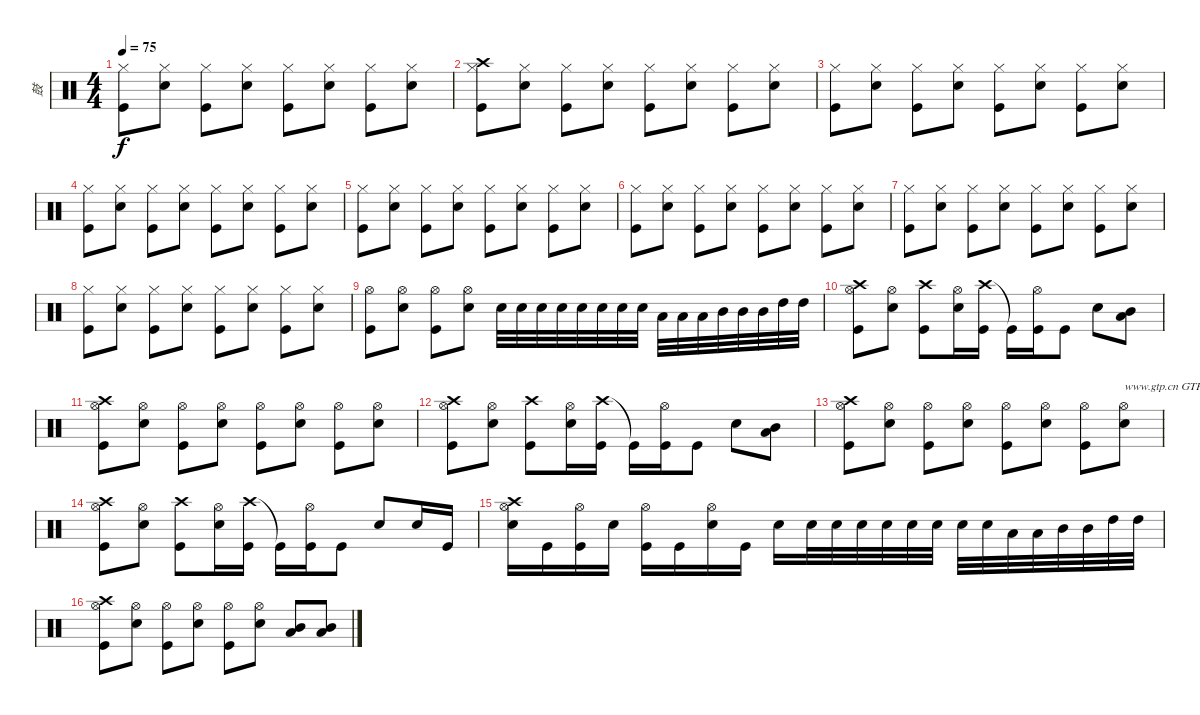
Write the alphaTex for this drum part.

\track ("鼓" "鼓") {instrument percussion}
\staff {score}
\articulation defaults
\ts (4 4)
\tempo 75
\clef neutral
\ks c
("Hi-Hat (closed)" "Kick (hit)").8{dy f} ("Hi-Hat (closed)" "Electric Snare (hit)").8 ("Hi-Hat (closed)" "Kick (hit)").8 ("Hi-Hat (closed)" "Electric Snare (hit)").8 ("Hi-Hat (closed)" "Kick (hit)").8 ("Hi-Hat (closed)" "Electric Snare (hit)").8 ("Hi-Hat (closed)" "Kick (hit)").8 ("Hi-Hat (closed)" "Electric Snare (hit)").8 |
("Crash high (hit)" "Hi-Hat (closed)" "Kick (hit)").8 ("Hi-Hat (closed)" "Electric Snare (hit)").8 ("Hi-Hat (closed)" "Kick (hit)").8 ("Hi-Hat (closed)" "Electric Snare (hit)").8 ("Hi-Hat (closed)" "Kick (hit)").8 ("Hi-Hat (closed)" "Electric Snare (hit)").8 ("Hi-Hat (closed)" "Kick (hit)").8 ("Hi-Hat (closed)" "Electric Snare (hit)").8 |
("Hi-Hat (closed)" "Kick (hit)").8 ("Hi-Hat (closed)" "Electric Snare (hit)").8 ("Hi-Hat (closed)" "Kick (hit)").8 ("Hi-Hat (closed)" "Electric Snare (hit)").8 ("Hi-Hat (closed)" "Kick (hit)").8 ("Hi-Hat (closed)" "Electric Snare (hit)").8 ("Hi-Hat (closed)" "Kick (hit)").8 ("Hi-Hat (closed)" "Electric Snare (hit)").8 |
("Hi-Hat (closed)" "Kick (hit)").8 ("Hi-Hat (closed)" "Electric Snare (hit)").8 ("Hi-Hat (closed)" "Kick (hit)").8 ("Hi-Hat (closed)" "Electric Snare (hit)").8 ("Hi-Hat (closed)" "Kick (hit)").8 ("Hi-Hat (closed)" "Electric Snare (hit)").8 ("Hi-Hat (closed)" "Kick (hit)").8 ("Hi-Hat (closed)" "Electric Snare (hit)").8 |
("Hi-Hat (closed)" "Kick (hit)").8 ("Hi-Hat (closed)" "Electric Snare (hit)").8 ("Hi-Hat (closed)" "Kick (hit)").8 ("Hi-Hat (closed)" "Electric Snare (hit)").8 ("Hi-Hat (closed)" "Kick (hit)").8 ("Hi-Hat (closed)" "Electric Snare (hit)").8 ("Hi-Hat (closed)" "Kick (hit)").8 ("Hi-Hat (closed)" "Electric Snare (hit)").8 |
("Hi-Hat (closed)" "Kick (hit)").8 ("Hi-Hat (closed)" "Electric Snare (hit)").8 ("Hi-Hat (closed)" "Kick (hit)").8 ("Hi-Hat (closed)" "Electric Snare (hit)").8 ("Hi-Hat (closed)" "Kick (hit)").8 ("Hi-Hat (closed)" "Electric Snare (hit)").8 ("Hi-Hat (closed)" "Kick (hit)").8 ("Hi-Hat (closed)" "Electric Snare (hit)").8 |
("Hi-Hat (closed)" "Kick (hit)").8 ("Hi-Hat (closed)" "Electric Snare (hit)").8 ("Hi-Hat (closed)" "Kick (hit)").8 ("Hi-Hat (closed)" "Electric Snare (hit)").8 ("Hi-Hat (closed)" "Kick (hit)").8 ("Hi-Hat (closed)" "Electric Snare (hit)").8 ("Hi-Hat (closed)" "Kick (hit)").8 ("Hi-Hat (closed)" "Electric Snare (hit)").8 |
("Hi-Hat (closed)" "Kick (hit)").8 ("Hi-Hat (closed)" "Electric Snare (hit)").8 ("Hi-Hat (closed)" "Kick (hit)").8 ("Hi-Hat (closed)" "Electric Snare (hit)").8 ("Hi-Hat (closed)" "Kick (hit)").8 ("Hi-Hat (closed)" "Electric Snare (hit)").8 ("Hi-Hat (closed)" "Kick (hit)").8 ("Hi-Hat (closed)" "Electric Snare (hit)").8 |
("Hi-Hat (open)" "Kick (hit)").8 ("Hi-Hat (open)" "Electric Snare (hit)").8 ("Hi-Hat (open)" "Kick (hit)").8 ("Hi-Hat (open)" "Electric Snare (hit)").8 "Electric Snare (hit)".32 "Electric Snare (hit)".32 "Electric Snare (hit)".32 "Electric Snare (hit)".32 "Electric Snare (hit)".32 "Electric Snare (hit)".32 "Electric Snare (hit)".32 "Electric Snare (hit)".32 "Low Tom (hit)".32 "Low Tom (hit)".32 "Low Tom (hit)".32 "Mid Tom (hit)".32 "Mid Tom (hit)".32 "Mid Tom (hit)".32 "High Tom (hit)".32 "High Tom (hit)".32 |
("Crash high (hit)" "Hi-Hat (open)" "Kick (hit)").8 ("Hi-Hat (open)" "Electric Snare (hit)").8 ("Crash high (hit)" "Kick (hit)").8 ("Hi-Hat (open)" "Electric Snare (hit)").16 ("Crash high (hit)" "Kick (hit)").16 "Kick (hit)"{t}.16 ("Hi-Hat (open)" "Kick (hit)").16 "Kick (hit)".8 "Electric Snare (hit)".8 ("Mid Tom (hit)" "Low Tom (hit)").8 |
("Crash high (hit)" "Hi-Hat (open)" "Kick (hit)").8 ("Hi-Hat (open)" "Electric Snare (hit)").8 ("Hi-Hat (open)" "Kick (hit)").8 ("Hi-Hat (open)" "Electric Snare (hit)").8 ("Hi-Hat (open)" "Kick (hit)").8 ("Hi-Hat (open)" "Electric Snare (hit)").8 ("Hi-Hat (open)" "Kick (hit)").8 ("Hi-Hat (open)" "Electric Snare (hit)").8 |
("Crash high (hit)" "Hi-Hat (open)" "Kick (hit)").8 ("Hi-Hat (open)" "Electric Snare (hit)").8 ("Crash high (hit)" "Kick (hit)").8 ("Hi-Hat (open)" "Electric Snare (hit)").16 ("Crash high (hit)" "Kick (hit)").16 "Kick (hit)"{t}.16 ("Hi-Hat (open)" "Kick (hit)").16 "Kick (hit)".8 "Electric Snare (hit)".8 ("Mid Tom (hit)" "Low Tom (hit)").8 |
("Crash high (hit)" "Hi-Hat (open)" "Kick (hit)").8 ("Hi-Hat (open)" "Electric Snare (hit)").8 ("Hi-Hat (open)" "Kick (hit)").8 ("Hi-Hat (open)" "Electric Snare (hit)").8 ("Hi-Hat (open)" "Kick (hit)").8 ("Hi-Hat (open)" "Electric Snare (hit)").8 ("Hi-Hat (open)" "Kick (hit)").8 ("Hi-Hat (open)" "Electric Snare (hit)").8{txt "www.gtp.cn GTP中文娱乐网为您提供优秀的谱子"} |
("Crash high (hit)" "Hi-Hat (open)" "Kick (hit)").8 ("Hi-Hat (open)" "Electric Snare (hit)").8 ("Crash high (hit)" "Kick (hit)").8 ("Hi-Hat (open)" "Electric Snare (hit)").16 ("Crash high (hit)" "Kick (hit)").16 "Kick (hit)"{t}.16 ("Hi-Hat (open)" "Kick (hit)").16 "Kick (hit)".8 "Electric Snare (hit)".8 "Electric Snare (hit)".16 "Kick (hit)".16 |
("Crash high (hit)" "Hi-Hat (open)" "Electric Snare (hit)").16 "Kick (hit)".16 ("Hi-Hat (open)" "Kick (hit)").16 "Electric Snare (hit)".16 ("Hi-Hat (open)" "Kick (hit)").16 "Kick (hit)".16 ("Hi-Hat (open)" "Electric Snare (hit)").16 "Kick (hit)".16 "Electric Snare (hit)".16 "Electric Snare (hit)".32 "Electric Snare (hit)".32 "Electric Snare (hit)".32 "Electric Snare (hit)".32 "Electric Snare (hit)".32 "Electric Snare (hit)".32 "Electric Snare (hit)".32 "Electric Snare (hit)".32 "Low Tom (hit)".32 "Low Tom (hit)".32 "Mid Tom (hit)".32 "Mid Tom (hit)".32 "High Tom (hit)".32 "High Tom (hit)".32 |
("Crash high (hit)" "Hi-Hat (open)" "Kick (hit)").8 ("Hi-Hat (open)" "Electric Snare (hit)").8 ("Hi-Hat (open)" "Kick (hit)").8 ("Hi-Hat (open)" "Electric Snare (hit)").8 ("Hi-Hat (open)" "Kick (hit)").8 ("Hi-Hat (open)" "Electric Snare (hit)").8 ("Mid Tom (hit)" "Low Tom (hit)").8 ("Mid Tom (hit)" "Low Tom (hit)").8
